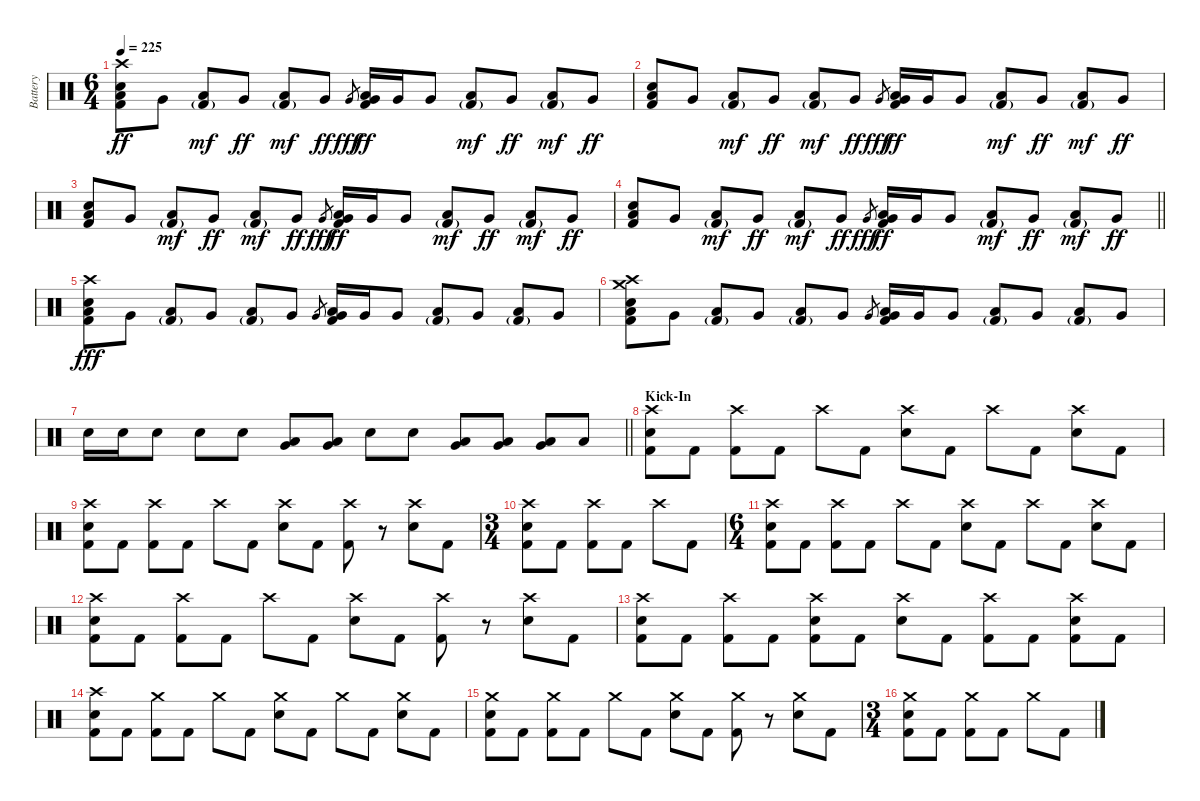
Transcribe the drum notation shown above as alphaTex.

\track ("Battery" "Battery") {instrument percussion}
\staff {score}
\articulation defaults
\ts (6 4)
\tempo 225
\clef neutral
\ks c
("Crash high (hit)" "Low Tom (hit)" "Electric Snare (hit)" "Kick (hit) 2").8{dy ff} "Very Low Tom (hit)".8 ("Low Tom (hit)" "Kick (hit) 2"{g}).8{dy mf} "Very Low Tom (hit)".8{dy ff} ("Low Tom (hit)" "Kick (hit) 2"{g}).8{dy mf} "Very Low Tom (hit)".8{dy ff} "Very Low Tom (hit)".8{gr dy fff} ("Low Tom (hit)" "Very Low Tom (hit)" "Kick (hit) 2").16{dy ff} "Very Low Tom (hit)".16 "Very Low Tom (hit)".8 ("Low Tom (hit)" "Kick (hit) 2"{g}).8{dy mf} "Very Low Tom (hit)".8{dy ff} ("Low Tom (hit)" "Kick (hit) 2"{g}).8{dy mf} "Very Low Tom (hit)".8{dy ff} |
("Low Tom (hit)" "Electric Snare (hit)" "Kick (hit) 2").8 "Very Low Tom (hit)".8 ("Low Tom (hit)" "Kick (hit) 2"{g}).8{dy mf} "Very Low Tom (hit)".8{dy ff} ("Low Tom (hit)" "Kick (hit) 2"{g}).8{dy mf} "Very Low Tom (hit)".8{dy ff} "Very Low Tom (hit)".8{gr dy fff} ("Low Tom (hit)" "Very Low Tom (hit)" "Kick (hit) 2").16{dy ff} "Very Low Tom (hit)".16 "Very Low Tom (hit)".8 ("Low Tom (hit)" "Kick (hit) 2"{g}).8{dy mf} "Very Low Tom (hit)".8{dy ff} ("Low Tom (hit)" "Kick (hit) 2"{g}).8{dy mf} "Very Low Tom (hit)".8{dy ff} |
("Low Tom (hit)" "Electric Snare (hit)" "Kick (hit) 2").8 "Very Low Tom (hit)".8 ("Low Tom (hit)" "Kick (hit) 2"{g}).8{dy mf} "Very Low Tom (hit)".8{dy ff} ("Low Tom (hit)" "Kick (hit) 2"{g}).8{dy mf} "Very Low Tom (hit)".8{dy ff} "Very Low Tom (hit)".8{gr dy fff} ("Low Tom (hit)" "Very Low Tom (hit)" "Kick (hit) 2").16{dy ff} "Very Low Tom (hit)".16 "Very Low Tom (hit)".8 ("Low Tom (hit)" "Kick (hit) 2"{g}).8{dy mf} "Very Low Tom (hit)".8{dy ff} ("Low Tom (hit)" "Kick (hit) 2"{g}).8{dy mf} "Very Low Tom (hit)".8{dy ff} |
\barLineRight lightlight
("Low Tom (hit)" "Electric Snare (hit)" "Kick (hit) 2").8 "Very Low Tom (hit)".8 ("Low Tom (hit)" "Kick (hit) 2"{g}).8{dy mf} "Very Low Tom (hit)".8{dy ff} ("Low Tom (hit)" "Kick (hit) 2"{g}).8{dy mf} "Very Low Tom (hit)".8{dy ff} "Very Low Tom (hit)".8{gr dy fff} ("Low Tom (hit)" "Very Low Tom (hit)" "Kick (hit) 2").16{dy ff} "Very Low Tom (hit)".16 "Very Low Tom (hit)".8 ("Low Tom (hit)" "Kick (hit) 2"{g}).8{dy mf} "Very Low Tom (hit)".8{dy ff} ("Low Tom (hit)" "Kick (hit) 2"{g}).8{dy mf} "Very Low Tom (hit)".8{dy ff} |
\section ("" "")
("Crash high (hit)" "Low Tom (hit)" "Electric Snare (hit)" "Kick (hit) 2").8{dy fff} "Very Low Tom (hit)".8 ("Low Tom (hit)" "Kick (hit) 2"{g}).8 "Very Low Tom (hit)".8 ("Low Tom (hit)" "Kick (hit) 2"{g}).8 "Very Low Tom (hit)".8 "Very Low Tom (hit)".8{gr} ("Low Tom (hit)" "Very Low Tom (hit)" "Kick (hit) 2").16 "Very Low Tom (hit)".16 "Very Low Tom (hit)".8 ("Low Tom (hit)" "Kick (hit) 2"{g}).8 "Very Low Tom (hit)".8 ("Low Tom (hit)" "Kick (hit) 2"{g}).8 "Very Low Tom (hit)".8 |
("Crash high (hit)" "Crash medium (hit)" "Low Tom (hit)" "Electric Snare (hit)" "Kick (hit) 2").8 "Very Low Tom (hit)".8 ("Low Tom (hit)" "Kick (hit) 2"{g}).8 "Very Low Tom (hit)".8 ("Low Tom (hit)" "Kick (hit) 2"{g}).8 "Very Low Tom (hit)".8 "Very Low Tom (hit)".8{gr} ("Low Tom (hit)" "Very Low Tom (hit)" "Kick (hit) 2").16 "Very Low Tom (hit)".16 "Very Low Tom (hit)".8 ("Low Tom (hit)" "Kick (hit) 2"{g}).8 "Very Low Tom (hit)".8 ("Low Tom (hit)" "Kick (hit) 2"{g}).8 "Very Low Tom (hit)".8 |
\barLineRight lightlight "Electric Snare (hit)".16 "Electric Snare (hit)".16 "Electric Snare (hit)".8 "Electric Snare (hit)".8 "Electric Snare (hit)".8
("Very Low Tom (hit)" "Low Tom (hit)").8 ("Low Floor Tom (hit)" "Very Low Tom (hit)").8 "Electric Snare (hit)".8 "Electric Snare (hit)".8 ("Low Floor Tom (hit)" "Very Low Tom (hit)").8 ("Very Low Tom (hit)" "Low Tom (hit)").8 ("Low Floor Tom (hit)" "Very Low Tom (hit)").8 "Low Floor Tom (hit)".8 |
\section ("" "Kick-In")
("Crash high (hit)" "Electric Snare (hit)" "Kick (hit) 2").8 "Kick (hit) 2".8 ("Crash high (hit)" "Kick (hit) 2").8 "Kick (hit) 2".8 "Crash high (hit)".8 "Kick (hit) 2".8 ("Crash high (hit)" "Electric Snare (hit)").8 "Kick (hit) 2".8 "Crash high (hit)".8 "Kick (hit) 2".8 ("Crash high (hit)" "Electric Snare (hit)").8 "Kick (hit) 2".8 |
("Crash high (hit)" "Electric Snare (hit)" "Kick (hit) 2").8 "Kick (hit) 2".8 ("Crash high (hit)" "Kick (hit) 2").8 "Kick (hit) 2".8 "Crash high (hit)".8 "Kick (hit) 2".8 ("Crash high (hit)" "Electric Snare (hit)").8 "Kick (hit) 2".8 ("Crash high (hit)" "Kick (hit) 2").8 r.8 ("Crash high (hit)" "Electric Snare (hit)").8 "Kick (hit) 2".8 |
\ts (3 4)
("Crash high (hit)" "Electric Snare (hit)" "Kick (hit) 2").8 "Kick (hit) 2".8 ("Crash high (hit)" "Kick (hit) 2").8 "Kick (hit) 2".8 "Crash high (hit)".8 "Kick (hit) 2".8 |
\ts (6 4)
("Crash high (hit)" "Electric Snare (hit)" "Kick (hit) 2").8 "Kick (hit) 2".8 ("Crash high (hit)" "Kick (hit) 2").8 "Kick (hit) 2".8 "Crash high (hit)".8 "Kick (hit) 2".8 ("Crash high (hit)" "Electric Snare (hit)").8 "Kick (hit) 2".8 "Crash high (hit)".8 "Kick (hit) 2".8 ("Crash high (hit)" "Electric Snare (hit)").8 "Kick (hit) 2".8 |
("Crash high (hit)" "Electric Snare (hit)" "Kick (hit) 2").8 "Kick (hit) 2".8 ("Crash high (hit)" "Kick (hit) 2").8 "Kick (hit) 2".8 "Crash high (hit)".8 "Kick (hit) 2".8 ("Crash high (hit)" "Electric Snare (hit)").8 "Kick (hit) 2".8 ("Crash high (hit)" "Kick (hit) 2").8 r.8 ("Crash high (hit)" "Electric Snare (hit)").8 "Kick (hit) 2".8 |
("Crash high (hit)" "Electric Snare (hit)" "Kick (hit) 2").8 "Kick (hit) 2".8 ("Crash high (hit)" "Kick (hit) 2").8 "Kick (hit) 2".8 ("Crash high (hit)" "Electric Snare (hit)" "Kick (hit) 2").8 "Kick (hit) 2".8 ("Crash high (hit)" "Electric Snare (hit)").8 "Kick (hit) 2".8 ("Crash high (hit)" "Kick (hit) 2").8 "Kick (hit) 2".8 ("Crash high (hit)" "Electric Snare (hit)" "Kick (hit) 2").8 "Kick (hit) 2".8 |
("Crash high (hit)" "Electric Snare (hit)" "Kick (hit) 2").8 "Kick (hit) 2".8 ("Crash medium (hit)" "Kick (hit) 2").8 "Kick (hit) 2".8 "Crash medium (hit)".8 "Kick (hit) 2".8 ("Crash medium (hit)" "Electric Snare (hit)").8 "Kick (hit) 2".8 "Crash medium (hit)".8 "Kick (hit) 2".8 ("Crash medium (hit)" "Electric Snare (hit)").8 "Kick (hit) 2".8 |
("Crash medium (hit)" "Electric Snare (hit)" "Kick (hit) 2").8 "Kick (hit) 2".8 ("Crash medium (hit)" "Kick (hit) 2").8 "Kick (hit) 2".8 "Crash medium (hit)".8 "Kick (hit) 2".8 ("Crash medium (hit)" "Electric Snare (hit)").8 "Kick (hit) 2".8 ("Crash medium (hit)" "Kick (hit) 2").8 r.8 ("Crash medium (hit)" "Electric Snare (hit)").8 "Kick (hit) 2".8 |
\ts (3 4)
("Crash medium (hit)" "Electric Snare (hit)" "Kick (hit) 2").8 "Kick (hit) 2".8 ("Crash medium (hit)" "Kick (hit) 2").8 "Kick (hit) 2".8 "Crash medium (hit)".8 "Kick (hit) 2".8
